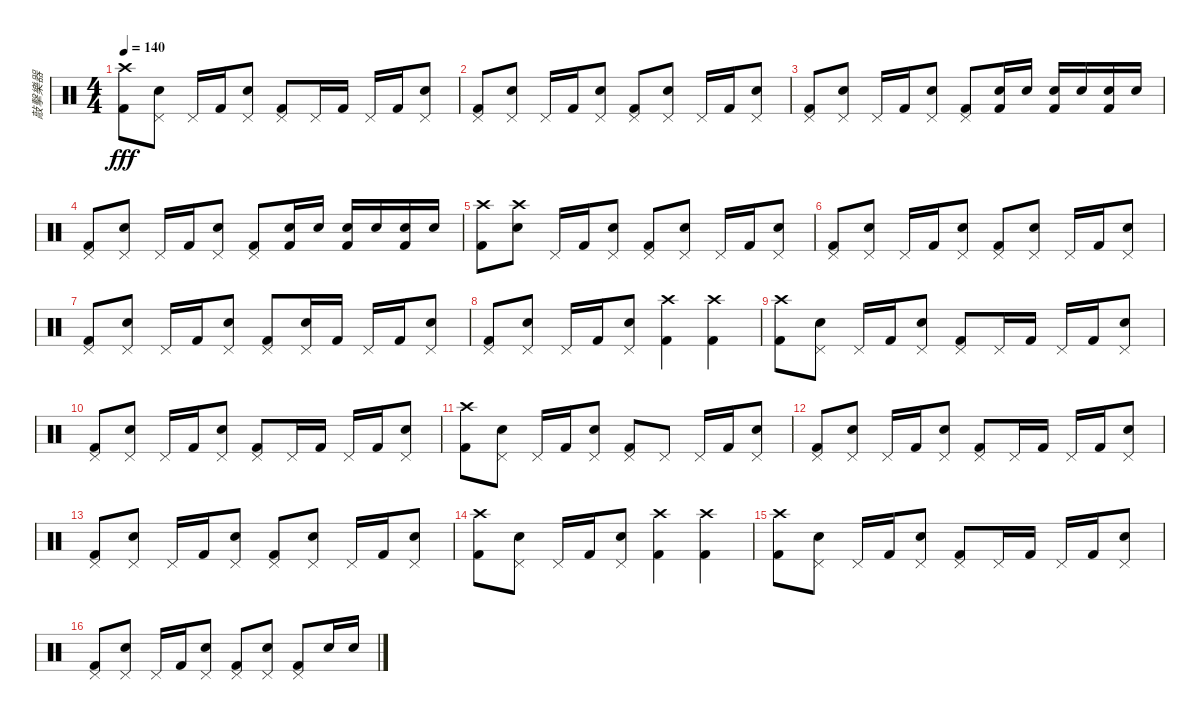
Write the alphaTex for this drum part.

\track ("敲擊樂器" "敲擊樂器") {instrument percussion}
\staff {score}
\articulation defaults
\ts (4 4)
\tempo 140
\clef neutral
\ks c
("Crash high (hit)" "Kick (hit) 2").8{dy fff} ("Pedal Hi-Hat (hit)" "Snare (hit) 2").8 "Pedal Hi-Hat (hit)".16 "Kick (hit) 2".16 ("Pedal Hi-Hat (hit)" "Snare (hit) 2").8 ("Pedal Hi-Hat (hit)" "Kick (hit) 2").8 "Pedal Hi-Hat (hit)".16 "Kick (hit) 2".16 "Pedal Hi-Hat (hit)".16 "Kick (hit) 2".16 ("Pedal Hi-Hat (hit)" "Snare (hit) 2").8 |
("Pedal Hi-Hat (hit)" "Kick (hit) 2").8 ("Pedal Hi-Hat (hit)" "Snare (hit) 2").8 "Pedal Hi-Hat (hit)".16 "Kick (hit) 2".16 ("Pedal Hi-Hat (hit)" "Snare (hit) 2").8 ("Pedal Hi-Hat (hit)" "Kick (hit) 2").8 ("Pedal Hi-Hat (hit)" "Snare (hit) 2").8 "Pedal Hi-Hat (hit)".16 "Kick (hit) 2".16 ("Pedal Hi-Hat (hit)" "Snare (hit) 2").8 |
("Pedal Hi-Hat (hit)" "Kick (hit) 2").8 ("Pedal Hi-Hat (hit)" "Snare (hit) 2").8 "Pedal Hi-Hat (hit)".16 "Kick (hit) 2".16 ("Pedal Hi-Hat (hit)" "Snare (hit) 2").8 ("Pedal Hi-Hat (hit)" "Kick (hit) 2").8 ("Snare (hit) 2" "Kick (hit) 2").16 "Snare (hit) 2".16 ("Snare (hit) 2" "Kick (hit) 2").16 "Snare (hit) 2".16 ("Snare (hit) 2" "Kick (hit) 2").16 "Snare (hit) 2".16 |
\section ("" "")
("Pedal Hi-Hat (hit)" "Kick (hit) 2").8 ("Pedal Hi-Hat (hit)" "Snare (hit) 2").8 "Pedal Hi-Hat (hit)".16 "Kick (hit) 2".16 ("Pedal Hi-Hat (hit)" "Snare (hit) 2").8 ("Pedal Hi-Hat (hit)" "Kick (hit) 2").8 ("Snare (hit) 2" "Kick (hit) 2").16 "Snare (hit) 2".16 ("Snare (hit) 2" "Kick (hit) 2").16 "Snare (hit) 2".16 ("Snare (hit) 2" "Kick (hit) 2").16 "Snare (hit) 2".16 |
("Crash high (hit)" "Kick (hit) 2").8 ("Crash high (hit)" "Snare (hit) 2").8 "Pedal Hi-Hat (hit)".16 "Kick (hit) 2".16 ("Pedal Hi-Hat (hit)" "Snare (hit) 2").8 ("Pedal Hi-Hat (hit)" "Kick (hit) 2").8 ("Pedal Hi-Hat (hit)" "Snare (hit) 2").8 "Pedal Hi-Hat (hit)".16 "Kick (hit) 2".16 ("Pedal Hi-Hat (hit)" "Snare (hit) 2").8 |
("Pedal Hi-Hat (hit)" "Kick (hit) 2").8 ("Pedal Hi-Hat (hit)" "Snare (hit) 2").8 "Pedal Hi-Hat (hit)".16 "Kick (hit) 2".16 ("Pedal Hi-Hat (hit)" "Snare (hit) 2").8 ("Pedal Hi-Hat (hit)" "Kick (hit) 2").8 ("Pedal Hi-Hat (hit)" "Snare (hit) 2").8 "Pedal Hi-Hat (hit)".16 "Kick (hit) 2".16 ("Pedal Hi-Hat (hit)" "Snare (hit) 2").8 |
("Pedal Hi-Hat (hit)" "Kick (hit) 2").8 ("Pedal Hi-Hat (hit)" "Snare (hit) 2").8 "Pedal Hi-Hat (hit)".16 "Kick (hit) 2".16 ("Pedal Hi-Hat (hit)" "Snare (hit) 2").8 ("Pedal Hi-Hat (hit)" "Kick (hit) 2").8 ("Pedal Hi-Hat (hit)" "Snare (hit) 2").16 "Kick (hit) 2".16 "Pedal Hi-Hat (hit)".16 "Kick (hit) 2".16 ("Pedal Hi-Hat (hit)" "Snare (hit) 2").8 |
("Pedal Hi-Hat (hit)" "Kick (hit) 2").8 ("Pedal Hi-Hat (hit)" "Snare (hit) 2").8 "Pedal Hi-Hat (hit)".16 "Kick (hit) 2".16 ("Pedal Hi-Hat (hit)" "Snare (hit) 2").8 ("Crash high (hit)" "Kick (hit) 2").4 ("Crash high (hit)" "Kick (hit) 2").4 |
("Crash high (hit)" "Kick (hit) 2").8 ("Pedal Hi-Hat (hit)" "Snare (hit) 2").8 "Pedal Hi-Hat (hit)".16 "Kick (hit) 2".16 ("Pedal Hi-Hat (hit)" "Snare (hit) 2").8 ("Pedal Hi-Hat (hit)" "Kick (hit) 2").8 "Pedal Hi-Hat (hit)".16 "Kick (hit) 2".16 "Pedal Hi-Hat (hit)".16 "Kick (hit) 2".16 ("Pedal Hi-Hat (hit)" "Snare (hit) 2").8 |
("Pedal Hi-Hat (hit)" "Kick (hit) 2").8 ("Pedal Hi-Hat (hit)" "Snare (hit) 2").8 "Pedal Hi-Hat (hit)".16 "Kick (hit) 2".16 ("Pedal Hi-Hat (hit)" "Snare (hit) 2").8 ("Pedal Hi-Hat (hit)" "Kick (hit) 2").8 "Pedal Hi-Hat (hit)".16 "Kick (hit) 2".16 "Pedal Hi-Hat (hit)".16 "Kick (hit) 2".16 ("Pedal Hi-Hat (hit)" "Snare (hit) 2").8 |
("Crash high (hit)" "Kick (hit) 2").8 ("Pedal Hi-Hat (hit)" "Snare (hit) 2").8 "Pedal Hi-Hat (hit)".16 "Kick (hit) 2".16 ("Pedal Hi-Hat (hit)" "Snare (hit) 2").8 ("Pedal Hi-Hat (hit)" "Kick (hit) 2").8 "Pedal Hi-Hat (hit)".8 "Pedal Hi-Hat (hit)".16 "Kick (hit) 2".16 ("Pedal Hi-Hat (hit)" "Snare (hit) 2").8 |
("Pedal Hi-Hat (hit)" "Kick (hit) 2").8 ("Pedal Hi-Hat (hit)" "Snare (hit) 2").8 "Pedal Hi-Hat (hit)".16 "Kick (hit) 2".16 ("Pedal Hi-Hat (hit)" "Snare (hit) 2").8 ("Pedal Hi-Hat (hit)" "Kick (hit) 2").8 "Pedal Hi-Hat (hit)".16 "Kick (hit) 2".16 "Pedal Hi-Hat (hit)".16 "Kick (hit) 2".16 ("Pedal Hi-Hat (hit)" "Snare (hit) 2").8 |
("Pedal Hi-Hat (hit)" "Kick (hit) 2").8 ("Pedal Hi-Hat (hit)" "Snare (hit) 2").8 "Pedal Hi-Hat (hit)".16 "Kick (hit) 2".16 ("Pedal Hi-Hat (hit)" "Snare (hit) 2").8 ("Pedal Hi-Hat (hit)" "Kick (hit) 2").8 ("Pedal Hi-Hat (hit)" "Snare (hit) 2").8 "Pedal Hi-Hat (hit)".16 "Kick (hit) 2".16 ("Pedal Hi-Hat (hit)" "Snare (hit) 2").8 |
("Crash high (hit)" "Kick (hit) 2").8 ("Pedal Hi-Hat (hit)" "Snare (hit) 2").8 "Pedal Hi-Hat (hit)".16 "Kick (hit) 2".16 ("Pedal Hi-Hat (hit)" "Snare (hit) 2").8 ("Crash high (hit)" "Kick (hit) 2").4 ("Crash high (hit)" "Kick (hit) 2").4 |
("Crash high (hit)" "Kick (hit) 2").8 ("Pedal Hi-Hat (hit)" "Snare (hit) 2").8 "Pedal Hi-Hat (hit)".16 "Kick (hit) 2".16 ("Pedal Hi-Hat (hit)" "Snare (hit) 2").8 ("Pedal Hi-Hat (hit)" "Kick (hit) 2").8 "Pedal Hi-Hat (hit)".16 "Kick (hit) 2".16 "Pedal Hi-Hat (hit)".16 "Kick (hit) 2".16 ("Pedal Hi-Hat (hit)" "Snare (hit) 2").8 |
("Pedal Hi-Hat (hit)" "Kick (hit) 2").8 ("Pedal Hi-Hat (hit)" "Snare (hit) 2").8 "Pedal Hi-Hat (hit)".16 "Kick (hit) 2".16 ("Pedal Hi-Hat (hit)" "Snare (hit) 2").8 ("Pedal Hi-Hat (hit)" "Kick (hit) 2").8 ("Pedal Hi-Hat (hit)" "Snare (hit) 2").8 ("Pedal Hi-Hat (hit)" "Kick (hit) 2").8 "Snare (hit) 2".16 "Snare (hit) 2".16
